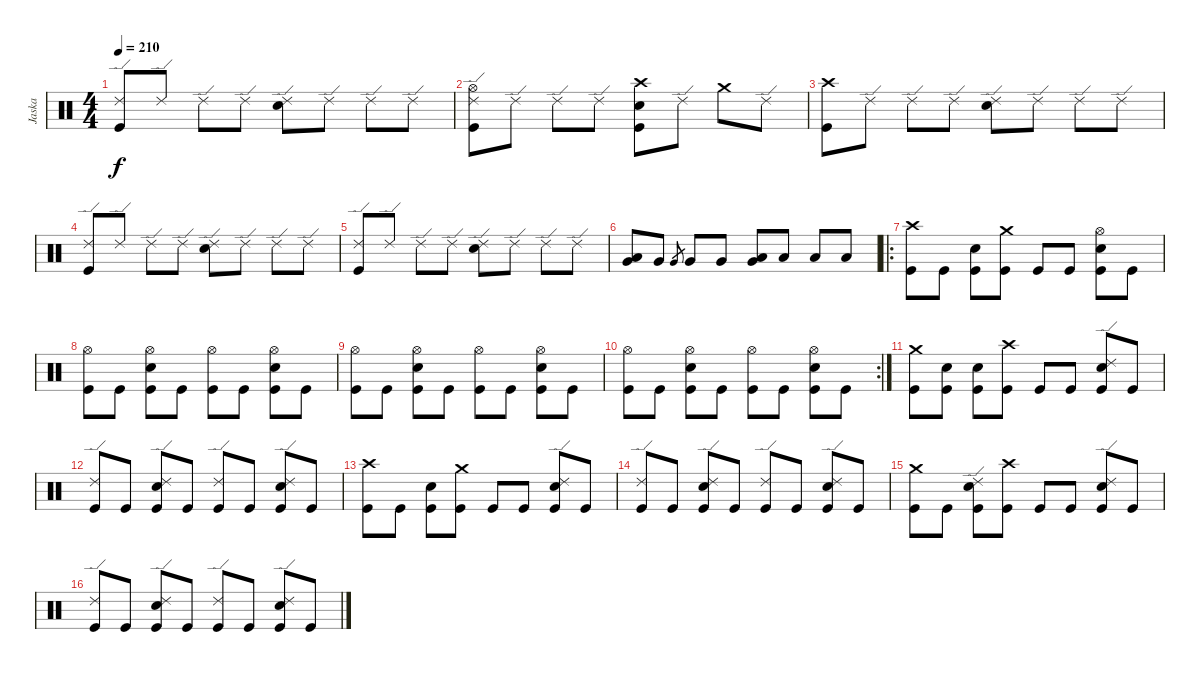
\track ("Jaska" "Jaska") {instrument percussion}
\staff {score}
\articulation defaults
\ts (4 4)
\tempo 210
\clef neutral
\ks c
("Ride (edge) 2" "Kick (hit)").8{dy f} "Ride (edge) 2".8 "Ride (edge) 2".8 "Ride (edge) 2".8 ("Ride (edge) 2" "Electric Snare (hit)").8 "Ride (edge) 2".8 "Ride (edge) 2".8 "Ride (edge) 2".8 |
("Ride (edge) 2" "Hi-Hat (open)" "Kick (hit)").8 "Ride (edge) 2".8 "Ride (edge) 2".8 "Ride (edge) 2".8 ("Crash high (hit)" "Electric Snare (hit)" "Kick (hit)").8 "Ride (edge) 2".8 "Crash medium (hit)".8 "Ride (edge) 2".8 |
("Crash high (hit)" "Kick (hit)").8 "Ride (edge) 2".8 "Ride (edge) 2".8 "Ride (edge) 2".8 ("Ride (edge) 2" "Electric Snare (hit)").8 "Ride (edge) 2".8 "Ride (edge) 2".8 "Ride (edge) 2".8 |
("Ride (edge) 2" "Kick (hit)").8 "Ride (edge) 2".8 "Ride (edge) 2".8 "Ride (edge) 2".8 ("Ride (edge) 2" "Electric Snare (hit)").8 "Ride (edge) 2".8 "Ride (edge) 2".8 "Ride (edge) 2".8 |
("Ride (edge) 2" "Kick (hit)").8 "Ride (edge) 2".8 "Ride (edge) 2".8 "Ride (edge) 2".8 ("Ride (edge) 2" "Electric Snare (hit)").8 "Ride (edge) 2".8 "Ride (edge) 2".8 "Ride (edge) 2".8 |
("Low Tom (hit)" "Very Low Tom (hit)").8 "Very Low Tom (hit)".8 "Very Low Tom (hit)".8{gr} "Very Low Tom (hit)".8 "Very Low Tom (hit)".8 ("Very Low Tom (hit)" "Low Floor Tom (hit)").8 "Low Floor Tom (hit)".8 "Low Floor Tom (hit)".8 "Low Floor Tom (hit)".8 |
\ro
("Crash high (hit)" "Kick (hit)").8 "Kick (hit)".8 ("Electric Snare (hit)" "Kick (hit)").8 ("Crash medium (hit)" "Kick (hit)").8 "Kick (hit)".8 "Kick (hit)".8 ("Hi-Hat (open)" "Electric Snare (hit)" "Kick (hit)").8 "Kick (hit)".8 |
("Hi-Hat (open)" "Kick (hit)").8 "Kick (hit)".8 ("Hi-Hat (open)" "Electric Snare (hit)" "Kick (hit)").8 "Kick (hit)".8 ("Hi-Hat (open)" "Kick (hit)").8 "Kick (hit)".8 ("Hi-Hat (open)" "Electric Snare (hit)" "Kick (hit)").8 "Kick (hit)".8 |
("Hi-Hat (open)" "Kick (hit)").8 "Kick (hit)".8 ("Hi-Hat (open)" "Electric Snare (hit)" "Kick (hit)").8 "Kick (hit)".8 ("Hi-Hat (open)" "Kick (hit)").8 "Kick (hit)".8 ("Hi-Hat (open)" "Electric Snare (hit)" "Kick (hit)").8 "Kick (hit)".8 |
\rc 2
("Hi-Hat (open)" "Kick (hit)").8 "Kick (hit)".8 ("Hi-Hat (open)" "Electric Snare (hit)" "Kick (hit)").8 "Kick (hit)".8 ("Hi-Hat (open)" "Kick (hit)").8 "Kick (hit)".8 ("Hi-Hat (open)" "Electric Snare (hit)" "Kick (hit)").8 "Kick (hit)".8 |
("Crash medium (hit)" "Kick (hit)").8 ("Electric Snare (hit)" "Kick (hit)").8 ("Electric Snare (hit)" "Kick (hit)").8 ("Crash high (hit)" "Kick (hit)").8 "Kick (hit)".8 "Kick (hit)".8 ("Ride (edge) 2" "Electric Snare (hit)" "Kick (hit)").8 "Kick (hit)".8 |
("Ride (edge) 2" "Kick (hit)").8 "Kick (hit)".8 ("Ride (edge) 2" "Electric Snare (hit)" "Kick (hit)").8 "Kick (hit)".8 ("Ride (edge) 2" "Kick (hit)").8 "Kick (hit)".8 ("Ride (edge) 2" "Electric Snare (hit)" "Kick (hit)").8 "Kick (hit)".8 |
("Crash high (hit)" "Kick (hit)").8 "Kick (hit)".8 ("Electric Snare (hit)" "Kick (hit)").8 ("Crash medium (hit)" "Kick (hit)").8 "Kick (hit)".8 "Kick (hit)".8 ("Ride (edge) 2" "Electric Snare (hit)" "Kick (hit)").8 "Kick (hit)".8 |
("Ride (edge) 2" "Kick (hit)").8 "Kick (hit)".8 ("Ride (edge) 2" "Electric Snare (hit)" "Kick (hit)").8 "Kick (hit)".8 ("Ride (edge) 2" "Kick (hit)").8 "Kick (hit)".8 ("Ride (edge) 2" "Electric Snare (hit)" "Kick (hit)").8 "Kick (hit)".8 |
("Crash medium (hit)" "Kick (hit)").8 "Kick (hit)".8 ("Ride (edge) 2" "Electric Snare (hit)" "Kick (hit)").8 ("Crash high (hit)" "Kick (hit)").8 "Kick (hit)".8 "Kick (hit)".8 ("Ride (edge) 2" "Electric Snare (hit)" "Kick (hit)").8 "Kick (hit)".8 |
("Ride (edge) 2" "Kick (hit)").8 "Kick (hit)".8 ("Ride (edge) 2" "Electric Snare (hit)" "Kick (hit)").8 "Kick (hit)".8 ("Ride (edge) 2" "Kick (hit)").8 "Kick (hit)".8 ("Ride (edge) 2" "Electric Snare (hit)" "Kick (hit)").8 "Kick (hit)".8
